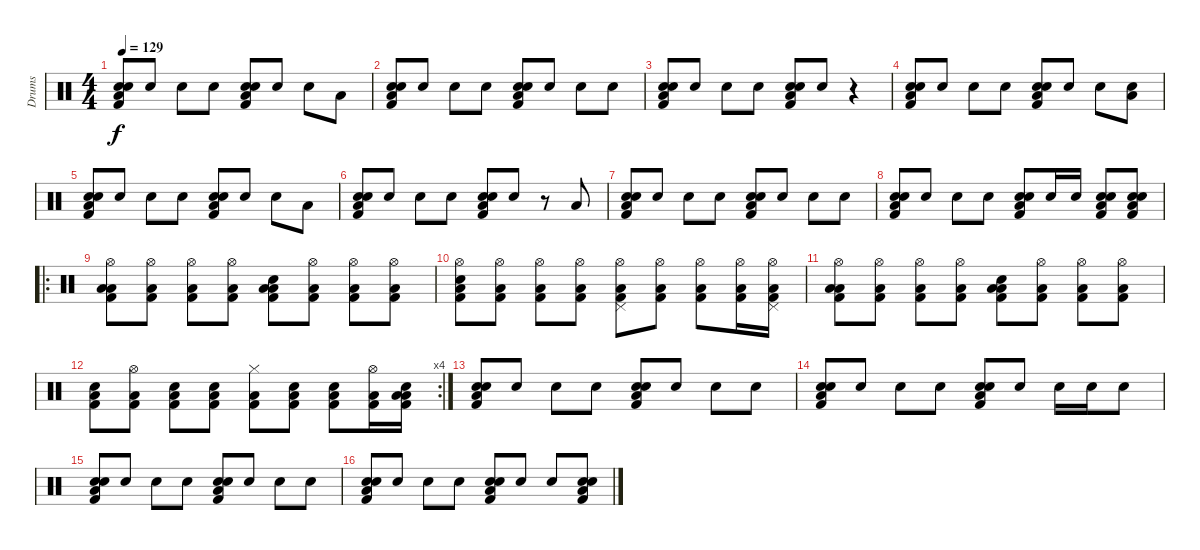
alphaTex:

\track ("Drums" "Drums") {instrument percussion}
\staff {score}
\articulation defaults
\ts (4 4)
\tempo 129
\clef neutral
\ks c
("Snare (hit) 2" "Low Tom (hit)" "Snare (hit) 2" "Kick (hit) 2").8{dy f} "Snare (hit) 2".8 "Snare (hit) 2".8 "Snare (hit) 2".8 ("Snare (hit) 2" "Low Tom (hit)" "Snare (hit) 2" "Kick (hit) 2").8 "Snare (hit) 2".8 "Snare (hit) 2".8 "Low Floor Tom (hit)".8 |
("Snare (hit) 2" "Low Tom (hit)" "Snare (hit) 2" "Kick (hit) 2").8 "Snare (hit) 2".8 "Snare (hit) 2".8 "Snare (hit) 2".8 ("Snare (hit) 2" "Low Tom (hit)" "Snare (hit) 2" "Kick (hit) 2").8 "Snare (hit) 2".8 "Snare (hit) 2".8 "Snare (hit) 2".8 |
("Snare (hit) 2" "Low Tom (hit)" "Snare (hit) 2" "Kick (hit) 2").8 "Snare (hit) 2".8 "Snare (hit) 2".8 "Snare (hit) 2".8 ("Snare (hit) 2" "Low Tom (hit)" "Snare (hit) 2" "Kick (hit) 2").8 "Snare (hit) 2".8 r.4 |
("Snare (hit) 2" "Low Tom (hit)" "Snare (hit) 2" "Kick (hit) 2").8 "Snare (hit) 2".8 "Snare (hit) 2".8 "Snare (hit) 2".8 ("Snare (hit) 2" "Low Tom (hit)" "Snare (hit) 2" "Kick (hit) 2").8 "Snare (hit) 2".8 "Snare (hit) 2".8 ("Low Floor Tom (hit)" "Snare (hit) 2").8 |
("Snare (hit) 2" "Low Tom (hit)" "Snare (hit) 2" "Kick (hit) 2").8 "Snare (hit) 2".8 "Snare (hit) 2".8 "Snare (hit) 2".8 ("Snare (hit) 2" "Low Tom (hit)" "Snare (hit) 2" "Kick (hit) 2").8 "Snare (hit) 2".8 "Snare (hit) 2".8 "Low Floor Tom (hit)".8 |
("Snare (hit) 2" "Low Tom (hit)" "Snare (hit) 2" "Kick (hit) 2").8 "Snare (hit) 2".8 "Snare (hit) 2".8 "Snare (hit) 2".8 ("Snare (hit) 2" "Low Tom (hit)" "Snare (hit) 2" "Kick (hit) 2").8 "Snare (hit) 2".8 r.8 "Low Floor Tom (hit)".8 |
("Snare (hit) 2" "Low Tom (hit)" "Snare (hit) 2" "Kick (hit) 2").8 "Snare (hit) 2".8 "Snare (hit) 2".8 "Snare (hit) 2".8 ("Snare (hit) 2" "Low Tom (hit)" "Snare (hit) 2" "Kick (hit) 2").8 "Snare (hit) 2".8 "Snare (hit) 2".8 "Snare (hit) 2".8 |
("Snare (hit) 2" "Low Tom (hit)" "Snare (hit) 2" "Kick (hit) 2").8 "Snare (hit) 2".8 "Snare (hit) 2".8 "Snare (hit) 2".8 ("Snare (hit) 2" "Low Tom (hit)" "Snare (hit) 2" "Kick (hit) 2").8 "Snare (hit) 2".16 "Snare (hit) 2".16 ("Snare (hit) 2" "Low Tom (hit)" "Snare (hit) 2" "Kick (hit) 2").8 ("Snare (hit) 2" "Low Tom (hit)" "Snare (hit) 2" "Kick (hit) 2").8 |
\ro
("Hi-Hat (open)" "Low Tom (hit)" "Low Floor Tom (hit)" "Kick (hit) 2").8 ("Hi-Hat (open)" "Low Floor Tom (hit)" "Kick (hit) 2").8 ("Hi-Hat (open)" "Low Floor Tom (hit)" "Kick (hit) 2").8 ("Hi-Hat (open)" "Low Floor Tom (hit)" "Kick (hit) 2").8 ("Snare (hit) 2" "Low Tom (hit)" "Low Floor Tom (hit)" "Kick (hit) 2").8 ("Hi-Hat (open)" "Low Floor Tom (hit)" "Kick (hit) 2").8 ("Hi-Hat (open)" "Low Floor Tom (hit)" "Kick (hit) 2").8 ("Hi-Hat (open)" "Low Floor Tom (hit)" "Kick (hit) 2").8 |
("Hi-Hat (open)" "Snare (hit)" "Low Floor Tom (hit)" "Kick (hit) 2").8 ("Hi-Hat (open)" "Low Floor Tom (hit)" "Kick (hit) 2").8 ("Hi-Hat (open)" "Low Floor Tom (hit)" "Kick (hit) 2").8 ("Hi-Hat (open)" "Low Floor Tom (hit)" "Kick (hit) 2").8 ("Hi-Hat (open)" "Pedal Hi-Hat (hit)" "Low Floor Tom (hit)" "Kick (hit) 2").8 ("Hi-Hat (open)" "Low Floor Tom (hit)" "Kick (hit) 2").8 ("Hi-Hat (open)" "Low Floor Tom (hit)" "Kick (hit) 2").8 ("Hi-Hat (open)" "Low Floor Tom (hit)" "Kick (hit) 2").16 ("Hi-Hat (open)" "Pedal Hi-Hat (hit)" "Low Floor Tom (hit)" "Kick (hit) 2").16 |
("Hi-Hat (open)" "Low Tom (hit)" "Kick (hit) 2" "Low Floor Tom (hit)").8 ("Hi-Hat (open)" "Kick (hit) 2" "Low Floor Tom (hit)").8 ("Hi-Hat (open)" "Kick (hit) 2" "Low Floor Tom (hit)").8 ("Hi-Hat (open)" "Kick (hit) 2" "Low Floor Tom (hit)").8 ("Snare (hit) 2" "Low Tom (hit)" "Kick (hit) 2" "Low Floor Tom (hit)").8 ("Hi-Hat (open)" "Kick (hit) 2" "Low Floor Tom (hit)").8 ("Hi-Hat (open)" "Kick (hit) 2" "Low Floor Tom (hit)").8 ("Hi-Hat (open)" "Kick (hit) 2" "Low Floor Tom (hit)").8 |
\rc 4
("Snare (hit) 2" "Kick (hit) 2" "Low Floor Tom (hit)").8 ("Hi-Hat (open)" "Kick (hit) 2" "Low Floor Tom (hit)").8 ("Snare (hit) 2" "Kick (hit) 2" "Low Floor Tom (hit)").8 ("Snare (hit) 2" "Kick (hit) 2" "Low Floor Tom (hit)").8 ("Hi-Hat (closed)" "Kick (hit) 2" "Low Floor Tom (hit)").8 ("Snare (hit) 2" "Kick (hit) 2" "Low Floor Tom (hit)").8 ("Snare (hit) 2" "Kick (hit) 2" "Low Floor Tom (hit)").8 ("Hi-Hat (open)" "Kick (hit) 2" "Low Floor Tom (hit)").16 ("Snare (hit) 2" "Low Tom (hit)" "Kick (hit) 2" "Low Floor Tom (hit)").16 |
("Snare (hit) 2" "Low Tom (hit)" "Snare (hit) 2" "Kick (hit) 2").8 "Snare (hit) 2".8 "Snare (hit) 2".8 "Snare (hit) 2".8 ("Snare (hit) 2" "Low Tom (hit)" "Snare (hit) 2" "Kick (hit) 2").8 "Snare (hit) 2".8 "Snare (hit) 2".8 "Snare (hit) 2".8 |
("Snare (hit) 2" "Low Tom (hit)" "Snare (hit) 2" "Kick (hit) 2").8 "Snare (hit) 2".8 "Snare (hit) 2".8 "Snare (hit) 2".8 ("Snare (hit) 2" "Low Tom (hit)" "Snare (hit) 2" "Kick (hit) 2").8 "Snare (hit) 2".8 "Snare (hit) 2".16 "Snare (hit) 2".16 "Snare (hit) 2".8 |
("Snare (hit) 2" "Low Tom (hit)" "Snare (hit) 2" "Kick (hit) 2").8 "Snare (hit) 2".8 "Snare (hit) 2".8 "Snare (hit) 2".8 ("Snare (hit) 2" "Low Tom (hit)" "Snare (hit) 2" "Kick (hit) 2").8 "Snare (hit) 2".8 "Snare (hit) 2".8 "Snare (hit) 2".8 |
("Snare (hit) 2" "Low Tom (hit)" "Snare (hit) 2" "Kick (hit) 2").8 "Snare (hit) 2".8 "Snare (hit) 2".8 "Snare (hit) 2".8 ("Snare (hit) 2" "Low Tom (hit)" "Snare (hit) 2" "Kick (hit) 2").8 "Snare (hit) 2".8 "Snare (hit) 2".8 ("Snare (hit) 2" "Low Tom (hit)" "Snare (hit) 2" "Kick (hit) 2").8
